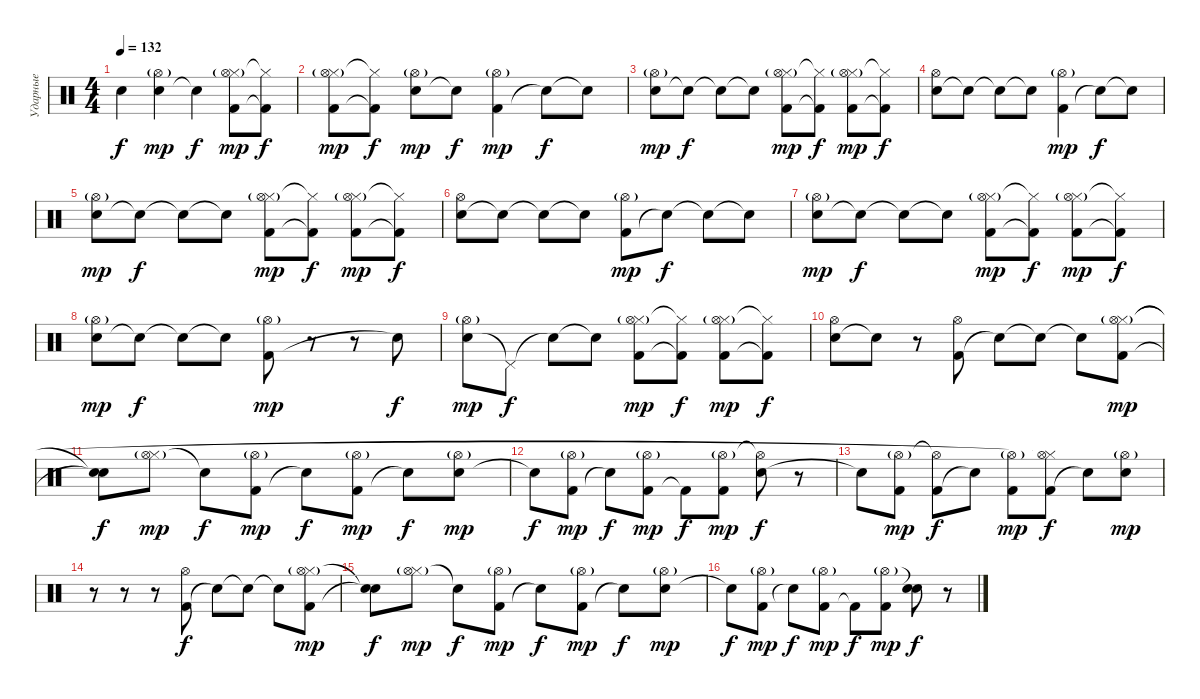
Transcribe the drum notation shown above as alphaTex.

\track ("Ударные" "Ударные") {instrument percussion}
\staff {score}
\articulation defaults
\ts (4 4)
\tempo 132
\clef neutral
\ks c "Snare (hit)"{t}.4{dy f}
("Snare (hit) 2" "Hi-Hat (open)"{g}).4{dy mp} "Snare (hit)"{t}.4{dy f} ("Hi-Hat (closed)" "Kick (hit) 2" "Hi-Hat (open)"{g}).8{dy mp} ("Hi-Hat (closed)"{t} "Kick (hit) 2"{t}).8{dy f} |
("Hi-Hat (closed)" "Kick (hit) 2" "Hi-Hat (open)"{g}).8{dy mp} ("Hi-Hat (closed)"{t} "Kick (hit) 2"{t}).8{dy f} ("Snare (hit) 2" "Hi-Hat (open)"{g}).8{dy mp} "Snare (hit)"{t}.8{dy f} ("Kick (hit) 2" "Hi-Hat (open)"{g}).4{dy mp} "Snare (hit)"{t}.8{dy f} "Snare (hit)"{t}.8 |
("Snare (hit) 2" "Hi-Hat (open)"{g}).8{dy mp} "Snare (hit)"{t}.8{dy f} "Snare (hit)"{t}.8 "Snare (hit)"{t}.8 ("Hi-Hat (closed)" "Kick (hit) 2" "Hi-Hat (open)"{g}).8{dy mp} ("Hi-Hat (closed)"{t} "Kick (hit) 2"{t}).8{dy f} ("Hi-Hat (closed)" "Kick (hit) 2" "Hi-Hat (open)"{g}).8{dy mp} ("Hi-Hat (closed)"{t} "Kick (hit) 2"{t}).8{dy f} |
("Snare (hit) 2" "Hi-Hat (open)").8 "Snare (hit)"{t}.8 "Snare (hit)"{t}.8 "Snare (hit)"{t}.8 ("Kick (hit) 2" "Hi-Hat (open)"{g}).4{dy mp} "Snare (hit)"{t}.8{dy f} "Snare (hit)"{t}.8 |
("Snare (hit) 2" "Hi-Hat (open)"{g}).8{dy mp} "Snare (hit)"{t}.8{dy f} "Snare (hit)"{t}.8 "Snare (hit)"{t}.8 ("Hi-Hat (closed)" "Kick (hit) 2" "Hi-Hat (open)"{g}).8{dy mp} ("Hi-Hat (closed)"{t} "Kick (hit) 2"{t}).8{dy f} ("Hi-Hat (closed)" "Kick (hit) 2" "Hi-Hat (open)"{g}).8{dy mp} ("Hi-Hat (closed)"{t} "Kick (hit) 2"{t}).8{dy f} |
("Snare (hit) 2" "Hi-Hat (open)").8 "Snare (hit)"{t}.8 "Snare (hit)"{t}.8 "Snare (hit)"{t}.8 ("Kick (hit) 2" "Hi-Hat (open)"{g}).8{dy mp} "Snare (hit)"{t}.8{dy f} "Snare (hit)"{t}.8 "Snare (hit)"{t}.8 |
("Snare (hit) 2" "Hi-Hat (open)"{g}).8{dy mp} "Snare (hit)"{t}.8{dy f} "Snare (hit)"{t}.8 "Snare (hit)"{t}.8 ("Hi-Hat (closed)" "Kick (hit) 2" "Hi-Hat (open)"{g}).8{dy mp} ("Hi-Hat (closed)"{t} "Kick (hit) 2"{t}).8{dy f} ("Hi-Hat (closed)" "Kick (hit) 2" "Hi-Hat (open)"{g}).8{dy mp} ("Hi-Hat (closed)"{t} "Kick (hit) 2"{t}).8{dy f} |
("Snare (hit) 2" "Hi-Hat (open)"{g}).8{dy mp} "Snare (hit)"{t}.8{dy f} "Snare (hit)"{t}.8 "Snare (hit)"{t}.8 ("Kick (hit) 2" "Hi-Hat (open)"{g}).8{dy mp} r.8 r.8 "Snare (hit)"{t}.8{dy f} |
("Snare (hit) 2" "Hi-Hat (open)"{g}).8{dy mp} "Pedal Hi-Hat (hit)"{t}.8{dy f} "Snare (hit)"{t}.8 "Snare (hit)"{t}.8 ("Hi-Hat (closed)" "Kick (hit) 2" "Hi-Hat (open)"{g}).8{dy mp} ("Hi-Hat (closed)"{t} "Kick (hit) 2"{t}).8{dy f} ("Hi-Hat (closed)" "Kick (hit) 2" "Hi-Hat (open)"{g}).8{dy mp} ("Hi-Hat (closed)"{t} "Kick (hit) 2"{t}).8{dy f} |
("Snare (hit) 2" "Hi-Hat (open)").8 "Snare (hit)"{t}.8 r.8 ("Kick (hit) 2" "Hi-Hat (open)").8 "Snare (hit)"{t}.8 "Snare (hit)"{t}.8 "Snare (hit)"{t}.8 ("Hi-Hat (closed)" "Kick (hit) 2" "Hi-Hat (open)"{g}).8{dy mp} |
("Snare (hit)"{t} "Snare (hit)"{t}).8{dy f} ("Hi-Hat (closed)" "Hi-Hat (open)"{g}).8{dy mp} "Snare (hit)"{t}.8{dy f} ("Kick (hit) 2" "Hi-Hat (open)"{g}).8{dy mp} "Snare (hit)"{t}.8{dy f} ("Kick (hit) 2" "Hi-Hat (open)"{g}).8{dy mp} "Snare (hit)"{t}.8{dy f} ("Snare (hit) 2" "Hi-Hat (open)"{g}).8{dy mp} |
"Snare (hit)"{t}.8{dy f} ("Kick (hit) 2" "Hi-Hat (open)"{g}).8{dy mp} "Snare (hit)"{t}.8{dy f} ("Kick (hit) 2" "Hi-Hat (open)"{g}).8{dy mp} "Kick (hit) 2"{t}.8{dy f} ("Kick (hit) 2" "Hi-Hat (open)"{g}).8{dy mp} ("Snare (hit) 2" "Hi-Hat (open)"{t}).8{dy f} r.8 |
"Snare (hit)"{t}.8 ("Kick (hit) 2" "Hi-Hat (open)"{g}).8{dy mp} ("Kick (hit) 2" "Hi-Hat (open)"{t}).8{dy f} "Snare (hit)"{t}.8 ("Kick (hit) 2" "Hi-Hat (open)"{g}).8{dy mp} ("Kick (hit) 2" "Hi-Hat (closed)" "Hi-Hat (open)"{t}).8{dy f} "Snare (hit) 2"{t}.8 ("Snare (hit) 2" "Hi-Hat (open)"{g}).8{dy mp} |
r.8 r.8 r.8 ("Kick (hit) 2" "Hi-Hat (open)").8{dy f} "Snare (hit)"{t}.8 "Snare (hit)"{t}.8 "Snare (hit)"{t}.8 ("Hi-Hat (closed)" "Kick (hit) 2" "Hi-Hat (open)"{g}).8{dy mp} |
("Snare (hit)"{t} "Snare (hit)"{t}).8{dy f} ("Hi-Hat (closed)" "Hi-Hat (open)"{g}).8{dy mp} "Snare (hit)"{t}.8{dy f} ("Kick (hit) 2" "Hi-Hat (open)"{g}).8{dy mp} "Snare (hit)"{t}.8{dy f} ("Kick (hit) 2" "Hi-Hat (open)"{g}).8{dy mp} "Snare (hit)"{t}.8{dy f} ("Snare (hit) 2" "Hi-Hat (open)"{g}).8{dy mp} |
"Snare (hit)"{t}.8{dy f} ("Kick (hit) 2" "Hi-Hat (open)"{g}).8{dy mp} "Snare (hit)"{t}.8{dy f} ("Kick (hit) 2" "Hi-Hat (open)"{g}).8{dy mp} "Kick (hit) 2"{t}.8{dy f} ("Kick (hit) 2" "Hi-Hat (open)"{g}).8{dy mp} ("Snare (hit) 2" "Snare (hit)"{t}).8{dy f} r.8
